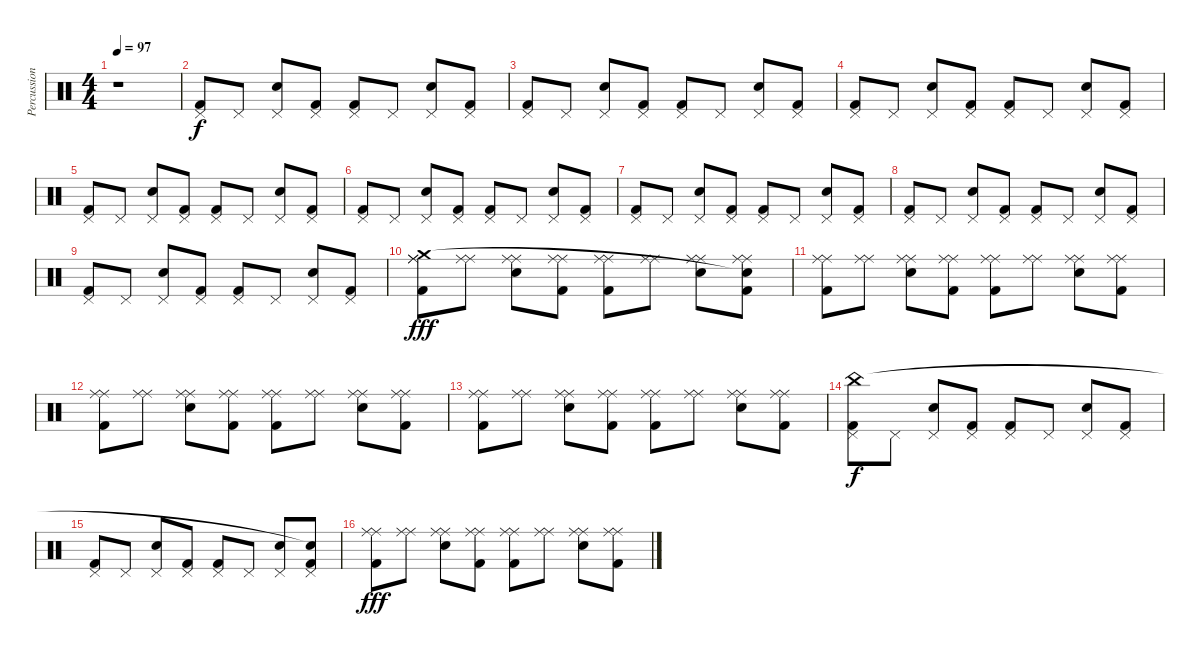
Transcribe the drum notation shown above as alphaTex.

\track ("Percussions" "Percussion") {instrument percussion}
\staff {score}
\articulation defaults
\ts (4 4)
\tempo 97
\clef neutral
\ks c
r.1{dy f} |
("Pedal Hi-Hat (hit)" "Kick (hit) 2").8 "Pedal Hi-Hat (hit)".8 ("Pedal Hi-Hat (hit)" "Electric Snare (hit)").8 ("Pedal Hi-Hat (hit)" "Kick (hit) 2").8 ("Pedal Hi-Hat (hit)" "Kick (hit) 2").8 "Pedal Hi-Hat (hit)".8 ("Pedal Hi-Hat (hit)" "Electric Snare (hit)").8 ("Pedal Hi-Hat (hit)" "Kick (hit) 2").8 |
("Pedal Hi-Hat (hit)" "Kick (hit) 2").8 "Pedal Hi-Hat (hit)".8 ("Pedal Hi-Hat (hit)" "Electric Snare (hit)").8 ("Pedal Hi-Hat (hit)" "Kick (hit) 2").8 ("Pedal Hi-Hat (hit)" "Kick (hit) 2").8 "Pedal Hi-Hat (hit)".8 ("Pedal Hi-Hat (hit)" "Electric Snare (hit)").8 ("Pedal Hi-Hat (hit)" "Kick (hit) 2").8 |
("Pedal Hi-Hat (hit)" "Kick (hit) 2").8 "Pedal Hi-Hat (hit)".8 ("Pedal Hi-Hat (hit)" "Electric Snare (hit)").8 ("Pedal Hi-Hat (hit)" "Kick (hit) 2").8 ("Pedal Hi-Hat (hit)" "Kick (hit) 2").8 "Pedal Hi-Hat (hit)".8 ("Pedal Hi-Hat (hit)" "Electric Snare (hit)").8 ("Pedal Hi-Hat (hit)" "Kick (hit) 2").8 |
("Pedal Hi-Hat (hit)" "Kick (hit) 2").8 "Pedal Hi-Hat (hit)".8 ("Pedal Hi-Hat (hit)" "Electric Snare (hit)").8 ("Pedal Hi-Hat (hit)" "Kick (hit) 2").8 ("Pedal Hi-Hat (hit)" "Kick (hit) 2").8 "Pedal Hi-Hat (hit)".8 ("Pedal Hi-Hat (hit)" "Electric Snare (hit)").8 ("Pedal Hi-Hat (hit)" "Kick (hit) 2").8 |
("Pedal Hi-Hat (hit)" "Kick (hit) 2").8 "Pedal Hi-Hat (hit)".8 ("Pedal Hi-Hat (hit)" "Electric Snare (hit)").8 ("Pedal Hi-Hat (hit)" "Kick (hit) 2").8 ("Pedal Hi-Hat (hit)" "Kick (hit) 2").8 "Pedal Hi-Hat (hit)".8 ("Pedal Hi-Hat (hit)" "Electric Snare (hit)").8 ("Pedal Hi-Hat (hit)" "Kick (hit) 2").8 |
("Pedal Hi-Hat (hit)" "Kick (hit) 2").8 "Pedal Hi-Hat (hit)".8 ("Pedal Hi-Hat (hit)" "Electric Snare (hit)").8 ("Pedal Hi-Hat (hit)" "Kick (hit) 2").8 ("Pedal Hi-Hat (hit)" "Kick (hit) 2").8 "Pedal Hi-Hat (hit)".8 ("Pedal Hi-Hat (hit)" "Electric Snare (hit)").8 ("Pedal Hi-Hat (hit)" "Kick (hit) 2").8 |
("Pedal Hi-Hat (hit)" "Kick (hit) 2").8 "Pedal Hi-Hat (hit)".8 ("Pedal Hi-Hat (hit)" "Electric Snare (hit)").8 ("Pedal Hi-Hat (hit)" "Kick (hit) 2").8 ("Pedal Hi-Hat (hit)" "Kick (hit) 2").8 "Pedal Hi-Hat (hit)".8 ("Pedal Hi-Hat (hit)" "Electric Snare (hit)").8 ("Pedal Hi-Hat (hit)" "Kick (hit) 2").8 |
("Pedal Hi-Hat (hit)" "Kick (hit) 2").8 "Pedal Hi-Hat (hit)".8 ("Pedal Hi-Hat (hit)" "Electric Snare (hit)").8 ("Pedal Hi-Hat (hit)" "Kick (hit) 2").8 ("Pedal Hi-Hat (hit)" "Kick (hit) 2").8 "Pedal Hi-Hat (hit)".8 ("Pedal Hi-Hat (hit)" "Electric Snare (hit)").8 ("Pedal Hi-Hat (hit)" "Kick (hit) 2").8 |
("Ride (middle)" "Ride (middle)" "Kick (hit) 2" "Crash medium (hit)").8{dy fff} ("Ride (middle)" "Ride (middle)").8 ("Ride (middle)" "Ride (middle)" "Electric Snare (hit)").8 ("Ride (middle)" "Ride (middle)" "Kick (hit) 2").8 ("Ride (middle)" "Ride (middle)" "Kick (hit) 2").8 ("Ride (middle)" "Ride (middle)").8 ("Ride (middle)" "Ride (middle)" "Electric Snare (hit)").8 ("Ride (middle)" "Ride (middle)" "Kick (hit) 2" "Snare (hit)"{t}).8 |
("Ride (middle)" "Ride (middle)" "Kick (hit) 2").8 ("Ride (middle)" "Ride (middle)").8 ("Ride (middle)" "Ride (middle)" "Electric Snare (hit)").8 ("Ride (middle)" "Ride (middle)" "Kick (hit) 2").8 ("Ride (middle)" "Ride (middle)" "Kick (hit) 2").8 ("Ride (middle)" "Ride (middle)").8 ("Ride (middle)" "Ride (middle)" "Electric Snare (hit)").8 ("Ride (middle)" "Ride (middle)" "Kick (hit) 2").8 |
("Ride (middle)" "Ride (middle)" "Kick (hit) 2").8 ("Ride (middle)" "Ride (middle)").8 ("Ride (middle)" "Ride (middle)" "Electric Snare (hit)").8 ("Ride (middle)" "Ride (middle)" "Kick (hit) 2").8 ("Ride (middle)" "Ride (middle)" "Kick (hit) 2").8 ("Ride (middle)" "Ride (middle)").8 ("Ride (middle)" "Ride (middle)" "Electric Snare (hit)").8 ("Ride (middle)" "Ride (middle)" "Kick (hit) 2").8 |
("Ride (middle)" "Ride (middle)" "Kick (hit) 2").8 ("Ride (middle)" "Ride (middle)").8 ("Ride (middle)" "Ride (middle)" "Electric Snare (hit)").8 ("Ride (middle)" "Ride (middle)" "Kick (hit) 2").8 ("Ride (middle)" "Ride (middle)" "Kick (hit) 2").8 ("Ride (middle)" "Ride (middle)").8 ("Ride (middle)" "Ride (middle)" "Electric Snare (hit)").8 ("Ride (middle)" "Ride (middle)" "Kick (hit) 2").8 |
("Pedal Hi-Hat (hit)" "Kick (hit) 2" "China (hit)").8{dy f} "Pedal Hi-Hat (hit)".8 ("Pedal Hi-Hat (hit)" "Electric Snare (hit)").8 ("Pedal Hi-Hat (hit)" "Kick (hit) 2").8 ("Pedal Hi-Hat (hit)" "Kick (hit) 2").8 "Pedal Hi-Hat (hit)".8 ("Pedal Hi-Hat (hit)" "Electric Snare (hit)").8 ("Pedal Hi-Hat (hit)" "Kick (hit) 2").8 |
("Pedal Hi-Hat (hit)" "Kick (hit) 2").8 "Pedal Hi-Hat (hit)".8 ("Pedal Hi-Hat (hit)" "Electric Snare (hit)").8 ("Pedal Hi-Hat (hit)" "Kick (hit) 2").8 ("Pedal Hi-Hat (hit)" "Kick (hit) 2").8 "Pedal Hi-Hat (hit)".8 ("Pedal Hi-Hat (hit)" "Electric Snare (hit)").8 ("Pedal Hi-Hat (hit)" "Kick (hit) 2" "Snare (hit)"{t}).8 |
("Ride (middle)" "Ride (middle)" "Kick (hit) 2").8{dy fff} ("Ride (middle)" "Ride (middle)").8 ("Ride (middle)" "Ride (middle)" "Electric Snare (hit)").8 ("Ride (middle)" "Ride (middle)" "Kick (hit) 2").8 ("Ride (middle)" "Ride (middle)" "Kick (hit) 2").8 ("Ride (middle)" "Ride (middle)").8 ("Ride (middle)" "Ride (middle)" "Electric Snare (hit)").8 ("Ride (middle)" "Ride (middle)" "Kick (hit) 2").8
